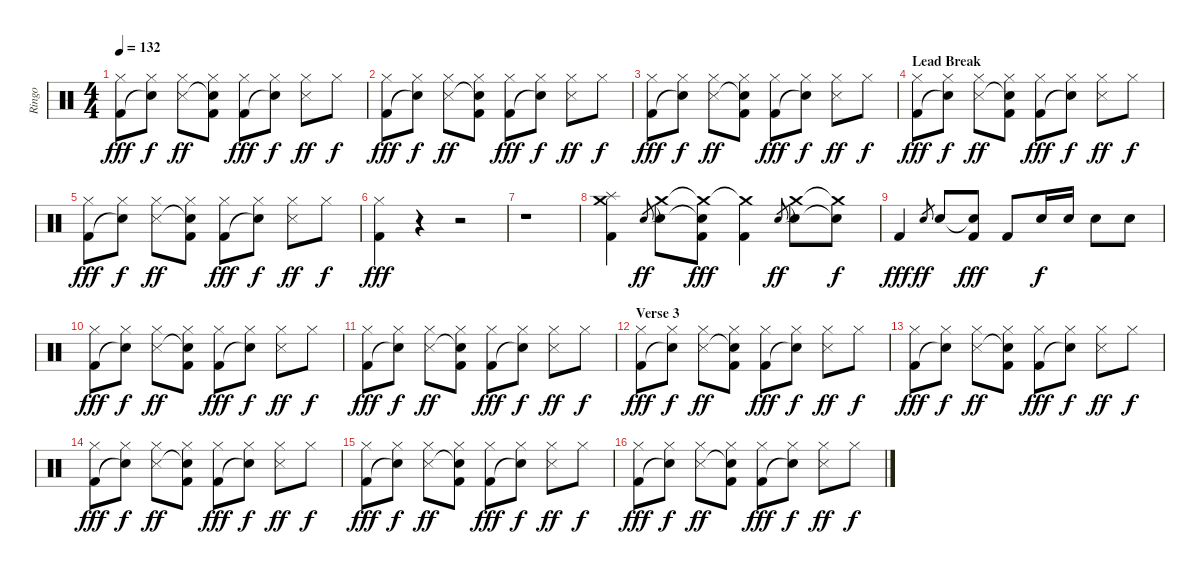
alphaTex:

\track ("Ringo" "Ringo") {instrument percussion}
\staff {score}
\articulation defaults
\ts (4 4)
\tempo 132
\clef neutral
\ks c
("Hi-Hat (closed)" "Kick (hit) 2").8{dy fff} ("Hi-Hat (closed)" "Snare (hit)"{t}).8{dy f} ("Hi-Hat (closed)" "Snare (side stick) 3").8{dy ff} ("Hi-Hat (closed)" "Snare (hit)"{t} "Kick (hit) 2").8 ("Hi-Hat (closed)" "Kick (hit) 2").8{dy fff} ("Hi-Hat (closed)" "Snare (hit)"{t}).8{dy f} ("Hi-Hat (closed)" "Snare (side stick) 3").8{dy ff} "Hi-Hat (closed)".8{dy f} |
("Hi-Hat (closed)" "Kick (hit) 2").8{dy fff} ("Hi-Hat (closed)" "Snare (hit)"{t}).8{dy f} ("Hi-Hat (closed)" "Snare (side stick) 3").8{dy ff} ("Hi-Hat (closed)" "Snare (hit)"{t} "Kick (hit) 2").8 ("Hi-Hat (closed)" "Kick (hit) 2").8{dy fff} ("Hi-Hat (closed)" "Snare (hit)"{t}).8{dy f} ("Hi-Hat (closed)" "Snare (side stick) 3").8{dy ff} "Hi-Hat (closed)".8{dy f} |
("Hi-Hat (closed)" "Kick (hit) 2").8{dy fff} ("Hi-Hat (closed)" "Snare (hit)"{t}).8{dy f} ("Hi-Hat (closed)" "Snare (side stick) 3").8{dy ff} ("Hi-Hat (closed)" "Snare (hit)"{t} "Kick (hit) 2").8 ("Hi-Hat (closed)" "Kick (hit) 2").8{dy fff} ("Hi-Hat (closed)" "Snare (hit)"{t}).8{dy f} ("Hi-Hat (closed)" "Snare (side stick) 3").8{dy ff} "Hi-Hat (closed)".8{dy f} |
\section ("" "Lead Break")
("Hi-Hat (closed)" "Kick (hit) 2").8{dy fff} ("Hi-Hat (closed)" "Snare (hit)"{t}).8{dy f} ("Hi-Hat (closed)" "Snare (side stick) 3").8{dy ff} ("Hi-Hat (closed)" "Snare (hit)"{t} "Kick (hit) 2").8 ("Hi-Hat (closed)" "Kick (hit) 2").8{dy fff} ("Hi-Hat (closed)" "Snare (hit)"{t}).8{dy f} ("Hi-Hat (closed)" "Snare (side stick) 3").8{dy ff} "Hi-Hat (closed)".8{dy f} |
("Hi-Hat (closed)" "Kick (hit) 2").8{dy fff} ("Hi-Hat (closed)" "Snare (hit)"{t}).8{dy f} ("Hi-Hat (closed)" "Snare (side stick) 3").8{dy ff} ("Hi-Hat (closed)" "Snare (hit)"{t} "Kick (hit) 2").8 ("Hi-Hat (closed)" "Kick (hit) 2").8{dy fff} ("Hi-Hat (closed)" "Snare (hit)"{t}).8{dy f} ("Hi-Hat (closed)" "Snare (side stick) 3").8{dy ff} "Hi-Hat (closed)".8{dy f} |
("Hi-Hat (closed)" "Kick (hit) 2").4{dy fff} r.4 r.2 |
r.1 |
("Crash medium (hit)" "Splash (hit)" "Kick (hit) 2").4 "Snare (hit) 2".8{gr dy ff} ("Crash medium (hit)"{t} "Snare (hit) 2").8 ("Crash medium (hit)"{t} "Snare (hit)"{t} "Kick (hit) 2").8{dy fff} ("Crash medium (hit)"{t} "Kick (hit) 2").4 "Snare (hit) 2".8{gr dy ff} ("Crash medium (hit)"{t} "Snare (hit) 2").8 ("Crash medium (hit)"{t} "Snare (hit) 2"{t}).8{dy f} |
"Kick (hit) 2".4{dy fff} "Snare (hit) 2".8{gr dy ff} "Snare (hit) 2".8 ("Snare (hit)"{t} "Kick (hit) 2").8{dy fff} "Kick (hit) 2".8 "Snare (hit) 2".16{dy f} "Snare (hit) 2".16 "Snare (hit) 2".8 "Snare (hit) 2".8 |
("Hi-Hat (closed)" "Kick (hit) 2").8{dy fff} ("Hi-Hat (closed)" "Snare (hit)"{t}).8{dy f} ("Hi-Hat (closed)" "Snare (side stick) 3").8{dy ff} ("Hi-Hat (closed)" "Snare (hit)"{t} "Kick (hit) 2").8 ("Hi-Hat (closed)" "Kick (hit) 2").8{dy fff} ("Hi-Hat (closed)" "Snare (hit)"{t}).8{dy f} ("Hi-Hat (closed)" "Snare (side stick) 3").8{dy ff} "Hi-Hat (closed)".8{dy f} |
("Hi-Hat (closed)" "Kick (hit) 2").8{dy fff} ("Hi-Hat (closed)" "Snare (hit)"{t}).8{dy f} ("Hi-Hat (closed)" "Snare (side stick) 3").8{dy ff} ("Hi-Hat (closed)" "Snare (hit)"{t} "Kick (hit) 2").8 ("Hi-Hat (closed)" "Kick (hit) 2").8{dy fff} ("Hi-Hat (closed)" "Snare (hit)"{t}).8{dy f} ("Hi-Hat (closed)" "Snare (side stick) 3").8{dy ff} "Hi-Hat (closed)".8{dy f} |
\section ("" "Verse 3")
("Hi-Hat (closed)" "Kick (hit) 2").8{dy fff} ("Hi-Hat (closed)" "Snare (hit)"{t}).8{dy f} ("Hi-Hat (closed)" "Snare (side stick) 3").8{dy ff} ("Hi-Hat (closed)" "Snare (hit)"{t} "Kick (hit) 2").8 ("Hi-Hat (closed)" "Kick (hit) 2").8{dy fff} ("Hi-Hat (closed)" "Snare (hit)"{t}).8{dy f} ("Hi-Hat (closed)" "Snare (side stick) 3").8{dy ff} "Hi-Hat (closed)".8{dy f} |
("Hi-Hat (closed)" "Kick (hit) 2").8{dy fff} ("Hi-Hat (closed)" "Snare (hit)"{t}).8{dy f} ("Hi-Hat (closed)" "Snare (side stick) 3").8{dy ff} ("Hi-Hat (closed)" "Snare (hit)"{t} "Kick (hit) 2").8 ("Hi-Hat (closed)" "Kick (hit) 2").8{dy fff} ("Hi-Hat (closed)" "Snare (hit)"{t}).8{dy f} ("Hi-Hat (closed)" "Snare (side stick) 3").8{dy ff} "Hi-Hat (closed)".8{dy f} |
("Hi-Hat (closed)" "Kick (hit) 2").8{dy fff} ("Hi-Hat (closed)" "Snare (hit)"{t}).8{dy f} ("Hi-Hat (closed)" "Snare (side stick) 3").8{dy ff} ("Hi-Hat (closed)" "Snare (hit)"{t} "Kick (hit) 2").8 ("Hi-Hat (closed)" "Kick (hit) 2").8{dy fff} ("Hi-Hat (closed)" "Snare (hit)"{t}).8{dy f} ("Hi-Hat (closed)" "Snare (side stick) 3").8{dy ff} "Hi-Hat (closed)".8{dy f} |
("Hi-Hat (closed)" "Kick (hit) 2").8{dy fff} ("Hi-Hat (closed)" "Snare (hit)"{t}).8{dy f} ("Hi-Hat (closed)" "Snare (side stick) 3").8{dy ff} ("Hi-Hat (closed)" "Snare (hit)"{t} "Kick (hit) 2").8 ("Hi-Hat (closed)" "Kick (hit) 2").8{dy fff} ("Hi-Hat (closed)" "Snare (hit)"{t}).8{dy f} ("Hi-Hat (closed)" "Snare (side stick) 3").8{dy ff} "Hi-Hat (closed)".8{dy f} |
("Hi-Hat (closed)" "Kick (hit) 2").8{dy fff} ("Hi-Hat (closed)" "Snare (hit)"{t}).8{dy f} ("Hi-Hat (closed)" "Snare (side stick) 3").8{dy ff} ("Hi-Hat (closed)" "Snare (hit)"{t} "Kick (hit) 2").8 ("Hi-Hat (closed)" "Kick (hit) 2").8{dy fff} ("Hi-Hat (closed)" "Snare (hit)"{t}).8{dy f} ("Hi-Hat (closed)" "Snare (side stick) 3").8{dy ff} "Hi-Hat (closed)".8{dy f}
